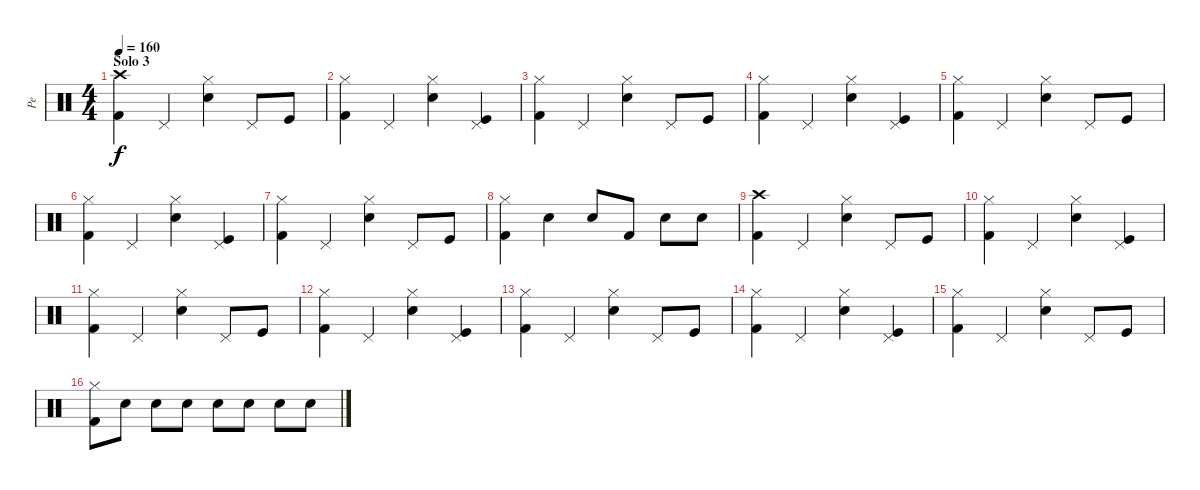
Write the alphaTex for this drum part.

\track ("Pe" "Pe") {instrument percussion}
\staff {score}
\articulation defaults
\ts (4 4)
\section ("" "Solo 3")
\tempo 160
\clef neutral
\ks c
("Kick (hit) 2" "Crash high (hit)").4{dy f} "Pedal Hi-Hat (hit)".4 ("Electric Snare (hit)" "Hi-Hat (closed)").4 "Pedal Hi-Hat (hit)".8 "Kick (hit)".8 |
("Kick (hit) 2" "Hi-Hat (closed)").4 "Pedal Hi-Hat (hit)".4 ("Electric Snare (hit)" "Hi-Hat (closed)").4 ("Kick (hit)" "Pedal Hi-Hat (hit)").4 |
("Kick (hit) 2" "Hi-Hat (closed)").4 "Pedal Hi-Hat (hit)".4 ("Electric Snare (hit)" "Hi-Hat (closed)").4 "Pedal Hi-Hat (hit)".8 "Kick (hit)".8 |
("Kick (hit) 2" "Hi-Hat (closed)").4 "Pedal Hi-Hat (hit)".4 ("Electric Snare (hit)" "Hi-Hat (closed)").4 ("Kick (hit)" "Pedal Hi-Hat (hit)").4 |
("Kick (hit) 2" "Hi-Hat (closed)").4 "Pedal Hi-Hat (hit)".4 ("Electric Snare (hit)" "Hi-Hat (closed)").4 "Pedal Hi-Hat (hit)".8 "Kick (hit)".8 |
("Kick (hit) 2" "Hi-Hat (closed)").4 "Pedal Hi-Hat (hit)".4 ("Electric Snare (hit)" "Hi-Hat (closed)").4 ("Kick (hit)" "Pedal Hi-Hat (hit)").4 |
("Kick (hit) 2" "Hi-Hat (closed)").4 "Pedal Hi-Hat (hit)".4 ("Electric Snare (hit)" "Hi-Hat (closed)").4 "Pedal Hi-Hat (hit)".8 "Kick (hit)".8 |
("Kick (hit) 2" "Hi-Hat (closed)").4 "Electric Snare (hit)".4 "Electric Snare (hit)".8 "Kick (hit) 2".8 "Electric Snare (hit)".8 "Electric Snare (hit)".8 |
("Kick (hit) 2" "Crash high (hit)").4 "Pedal Hi-Hat (hit)".4 ("Electric Snare (hit)" "Hi-Hat (closed)").4 "Pedal Hi-Hat (hit)".8 "Kick (hit)".8 |
("Kick (hit) 2" "Hi-Hat (closed)").4 "Pedal Hi-Hat (hit)".4 ("Electric Snare (hit)" "Hi-Hat (closed)").4 ("Kick (hit)" "Pedal Hi-Hat (hit)").4 |
("Kick (hit) 2" "Hi-Hat (closed)").4 "Pedal Hi-Hat (hit)".4 ("Electric Snare (hit)" "Hi-Hat (closed)").4 "Pedal Hi-Hat (hit)".8 "Kick (hit)".8 |
("Kick (hit) 2" "Hi-Hat (closed)").4 "Pedal Hi-Hat (hit)".4 ("Electric Snare (hit)" "Hi-Hat (closed)").4 ("Kick (hit)" "Pedal Hi-Hat (hit)").4 |
("Kick (hit) 2" "Hi-Hat (closed)").4 "Pedal Hi-Hat (hit)".4 ("Electric Snare (hit)" "Hi-Hat (closed)").4 "Pedal Hi-Hat (hit)".8 "Kick (hit)".8 |
("Kick (hit) 2" "Hi-Hat (closed)").4 "Pedal Hi-Hat (hit)".4 ("Electric Snare (hit)" "Hi-Hat (closed)").4 ("Kick (hit)" "Pedal Hi-Hat (hit)").4 |
("Kick (hit) 2" "Hi-Hat (closed)").4 "Pedal Hi-Hat (hit)".4 ("Electric Snare (hit)" "Hi-Hat (closed)").4 "Pedal Hi-Hat (hit)".8 "Kick (hit)".8 |
("Kick (hit) 2" "Hi-Hat (closed)").8 "Electric Snare (hit)".8 "Electric Snare (hit)".8 "Electric Snare (hit)".8 "Electric Snare (hit)".8 "Electric Snare (hit)".8 "Electric Snare (hit)".8 "Electric Snare (hit)".8
